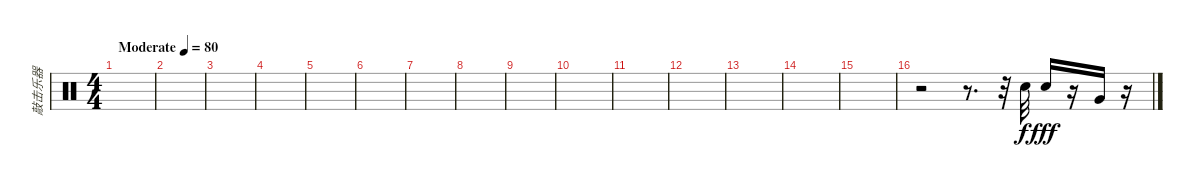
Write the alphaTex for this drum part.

\track ("敲击乐器" "敲击乐器") {instrument percussion}
\staff {score}
\articulation defaults
\ts (4 4)
\tempo (80 "Moderate")
\clef neutral
\ks c
|
|
|
|
|
|
|
|
|
|
|
|
|
|
|
r.2 r.8{d} r.32 "Electric Snare (hit)".32 "Electric Snare (hit)".16{dy fff} r.16 "Very Low Tom (hit)".16 r.16
